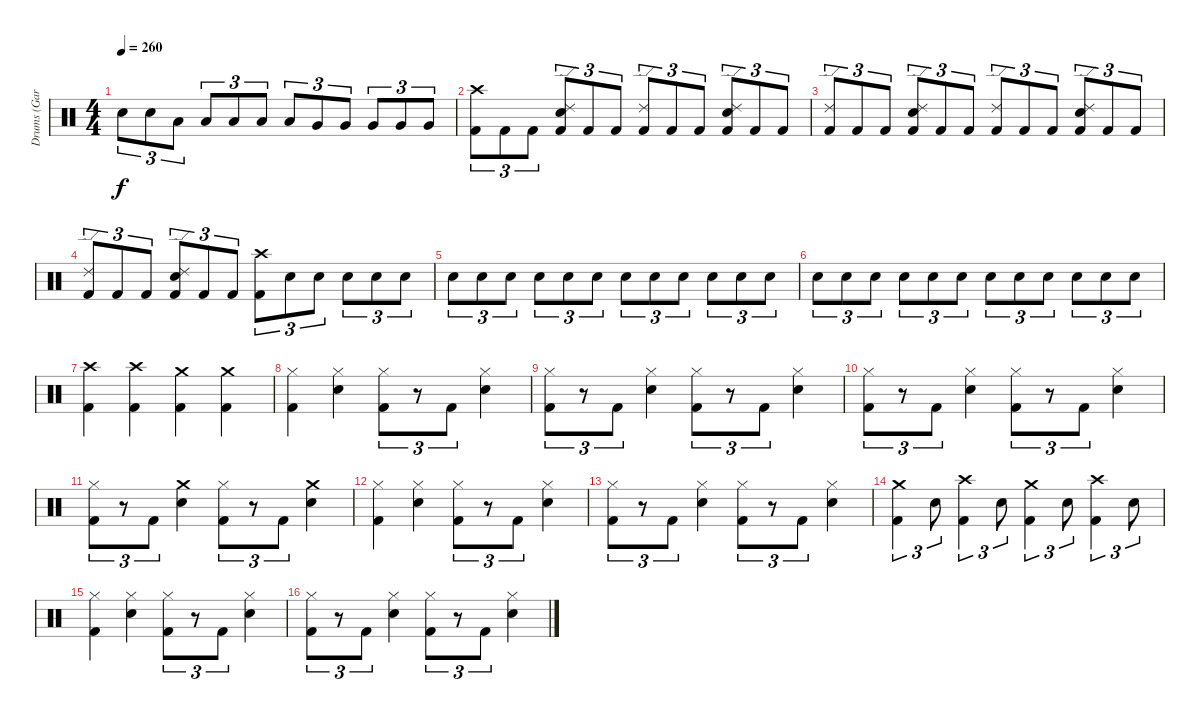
\track ("Drums (Gar Samuelson)" "Drums (Gar") {instrument percussion}
\staff {score}
\articulation defaults
\ts (4 4)
\tempo 260
\clef neutral
\ks c "Snare (hit) 2".8{tu (3 2) dy f} "Snare (hit) 2".8{tu (3 2)} "Low Tom (hit)".8{tu (3 2)} "Low Tom (hit)".8{tu (3 2)} "Low Tom (hit)".8{tu (3 2)} "Low Tom (hit)".8{tu (3 2)} "Low Tom (hit)".8{tu (3 2)} "Very Low Tom (hit)".8{tu (3 2)} "Very Low Tom (hit)".8{tu (3 2)} "Very Low Tom (hit)".8{tu (3 2)} "Very Low Tom (hit)".8{tu (3 2)} "Very Low Tom (hit)".8{tu (3 2)}
|
("Crash high (hit)" "Kick (hit) 2").8{tu (3 2)} "Kick (hit) 2".8{tu (3 2)} "Kick (hit) 2".8{tu (3 2)} ("Ride (edge) 2" "Snare (hit) 2" "Kick (hit) 2").8{tu (3 2)} "Kick (hit) 2".8{tu (3 2)} "Kick (hit) 2".8{tu (3 2)} ("Ride (edge) 2" "Kick (hit) 2").8{tu (3 2)} "Kick (hit) 2".8{tu (3 2)} "Kick (hit) 2".8{tu (3 2)} ("Ride (edge) 2" "Snare (hit) 2" "Kick (hit) 2").8{tu (3 2)} "Kick (hit) 2".8{tu (3 2)} "Kick (hit) 2".8{tu (3 2)} |
("Ride (edge) 2" "Kick (hit) 2").8{tu (3 2)} "Kick (hit) 2".8{tu (3 2)} "Kick (hit) 2".8{tu (3 2)} ("Ride (edge) 2" "Snare (hit) 2" "Kick (hit) 2").8{tu (3 2)} "Kick (hit) 2".8{tu (3 2)} "Kick (hit) 2".8{tu (3 2)} ("Ride (edge) 2" "Kick (hit) 2").8{tu (3 2)} "Kick (hit) 2".8{tu (3 2)} "Kick (hit) 2".8{tu (3 2)} ("Ride (edge) 2" "Snare (hit) 2" "Kick (hit) 2").8{tu (3 2)} "Kick (hit) 2".8{tu (3 2)} "Kick (hit) 2".8{tu (3 2)} |
("Ride (edge) 2" "Kick (hit) 2").8{tu (3 2)} "Kick (hit) 2".8{tu (3 2)} "Kick (hit) 2".8{tu (3 2)} ("Ride (edge) 2" "Snare (hit) 2" "Kick (hit) 2").8{tu (3 2)} "Kick (hit) 2".8{tu (3 2)} "Kick (hit) 2".8{tu (3 2)} ("Crash high (hit)" "Kick (hit) 2").8{tu (3 2)} "Snare (hit) 2".8{tu (3 2)} "Snare (hit) 2".8{tu (3 2)} "Snare (hit) 2".8{tu (3 2)} "Snare (hit) 2".8{tu (3 2)} "Snare (hit) 2".8{tu (3 2)} |
"Snare (hit) 2".8{tu (3 2)} "Snare (hit) 2".8{tu (3 2)} "Snare (hit) 2".8{tu (3 2)} "Snare (hit) 2".8{tu (3 2)} "Snare (hit) 2".8{tu (3 2)} "Snare (hit) 2".8{tu (3 2)} "Snare (hit) 2".8{tu (3 2)} "Snare (hit) 2".8{tu (3 2)} "Snare (hit) 2".8{tu (3 2)} "Snare (hit) 2".8{tu (3 2)} "Snare (hit) 2".8{tu (3 2)} "Snare (hit) 2".8{tu (3 2)} |
"Snare (hit) 2".8{tu (3 2)} "Snare (hit) 2".8{tu (3 2)} "Snare (hit) 2".8{tu (3 2)} "Snare (hit) 2".8{tu (3 2)} "Snare (hit) 2".8{tu (3 2)} "Snare (hit) 2".8{tu (3 2)} "Snare (hit) 2".8{tu (3 2)} "Snare (hit) 2".8{tu (3 2)} "Snare (hit) 2".8{tu (3 2)} "Snare (hit) 2".8{tu (3 2)} "Snare (hit) 2".8{tu (3 2)} "Snare (hit) 2".8{tu (3 2)} |
("Crash high (hit)" "Kick (hit) 2").4 ("Crash high (hit)" "Kick (hit) 2").4 ("Crash medium (hit)" "Kick (hit) 2").4 ("Crash medium (hit)" "Kick (hit) 2").4 |
("Hi-Hat (closed)" "Kick (hit) 2").4 ("Hi-Hat (closed)" "Snare (hit) 2").4 ("Hi-Hat (closed)" "Kick (hit) 2").8{tu (3 2)} r.8{tu (3 2)} "Kick (hit) 2".8{tu (3 2)} ("Hi-Hat (closed)" "Snare (hit) 2").4 |
("Hi-Hat (closed)" "Kick (hit) 2").8{tu (3 2)} r.8{tu (3 2)} "Kick (hit) 2".8{tu (3 2)} ("Hi-Hat (closed)" "Snare (hit) 2").4 ("Hi-Hat (closed)" "Kick (hit) 2").8{tu (3 2)} r.8{tu (3 2)} "Kick (hit) 2".8{tu (3 2)} ("Hi-Hat (closed)" "Snare (hit) 2").4 |
("Hi-Hat (closed)" "Kick (hit) 2").8{tu (3 2)} r.8{tu (3 2)} "Kick (hit) 2".8{tu (3 2)} ("Hi-Hat (closed)" "Snare (hit) 2").4 ("Hi-Hat (closed)" "Kick (hit) 2").8{tu (3 2)} r.8{tu (3 2)} "Kick (hit) 2".8{tu (3 2)} ("Hi-Hat (closed)" "Snare (hit) 2").4 |
("Hi-Hat (closed)" "Kick (hit) 2").8{tu (3 2)} r.8{tu (3 2)} "Kick (hit) 2".8{tu (3 2)} ("Crash medium (hit)" "Snare (hit) 2").4 ("Hi-Hat (closed)" "Kick (hit) 2").8{tu (3 2)} r.8{tu (3 2)} "Kick (hit) 2".8{tu (3 2)} ("Crash medium (hit)" "Snare (hit) 2").4 |
("Hi-Hat (closed)" "Kick (hit) 2").4 ("Hi-Hat (closed)" "Snare (hit) 2").4 ("Hi-Hat (closed)" "Kick (hit) 2").8{tu (3 2)} r.8{tu (3 2)} "Kick (hit) 2".8{tu (3 2)} ("Hi-Hat (closed)" "Snare (hit) 2").4 |
("Hi-Hat (closed)" "Kick (hit) 2").8{tu (3 2)} r.8{tu (3 2)} "Kick (hit) 2".8{tu (3 2)} ("Hi-Hat (closed)" "Snare (hit) 2").4 ("Hi-Hat (closed)" "Kick (hit) 2").8{tu (3 2)} r.8{tu (3 2)} "Kick (hit) 2".8{tu (3 2)} ("Hi-Hat (closed)" "Snare (hit) 2").4 |
("Crash medium (hit)" "Kick (hit) 2").4{tu (3 2)} "Snare (hit) 2".8{tu (3 2)} ("Crash high (hit)" "Kick (hit) 2").4{tu (3 2)} "Snare (hit) 2".8{tu (3 2)} ("Crash medium (hit)" "Kick (hit) 2").4{tu (3 2)} "Snare (hit) 2".8{tu (3 2)} ("Crash high (hit)" "Kick (hit) 2").4{tu (3 2)} "Snare (hit) 2".8{tu (3 2)} |
("Hi-Hat (closed)" "Kick (hit) 2").4 ("Hi-Hat (closed)" "Snare (hit) 2").4 ("Hi-Hat (closed)" "Kick (hit) 2").8{tu (3 2)} r.8{tu (3 2)} "Kick (hit) 2".8{tu (3 2)} ("Hi-Hat (closed)" "Snare (hit) 2").4 |
("Hi-Hat (closed)" "Kick (hit) 2").8{tu (3 2)} r.8{tu (3 2)} "Kick (hit) 2".8{tu (3 2)} ("Hi-Hat (closed)" "Snare (hit) 2").4 ("Hi-Hat (closed)" "Kick (hit) 2").8{tu (3 2)} r.8{tu (3 2)} "Kick (hit) 2".8{tu (3 2)} ("Hi-Hat (closed)" "Snare (hit) 2").4
